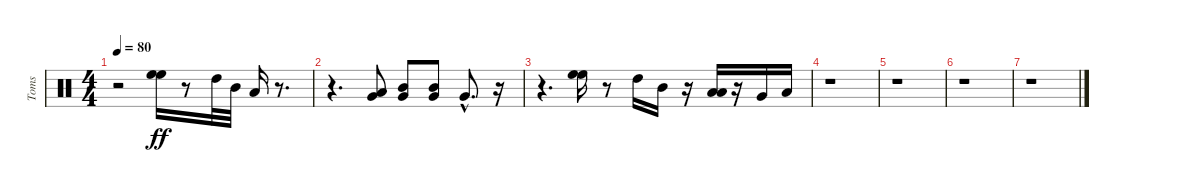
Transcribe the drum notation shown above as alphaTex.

\track ("Toms" "Toms") {instrument percussion}
\staff {score}
\articulation defaults
\ts (4 4)
\tempo 80
\clef neutral
\ks c
r.2{dy ff} ("High Floor Tom (hit)" "High Floor Tom (hit)").16 r.8 "High Tom (hit)".32 "Mid Tom (hit)".32 "Low Floor Tom (hit)".16 r.8{d} |
r.4{d} ("Low Tom (hit)" "Very Low Tom (hit)").8 ("Very Low Tom (hit)" "Mid Tom (hit)").8 ("Very Low Tom (hit)" "Mid Tom (hit)").8 "Very Low Tom (hit)"{hac}.8{d} r.16 |
r.4{d} ("High Floor Tom (hit)" "High Floor Tom (hit)").16 r.8 "High Tom (hit)".16 "Mid Tom (hit)".16 r.16 ("Low Tom (hit)" "Low Tom (hit)").16 r.16 "Very Low Tom (hit)".16 "Low Floor Tom (hit)".16 |
r.1 |
r.1 |
r.1 |
r.1
